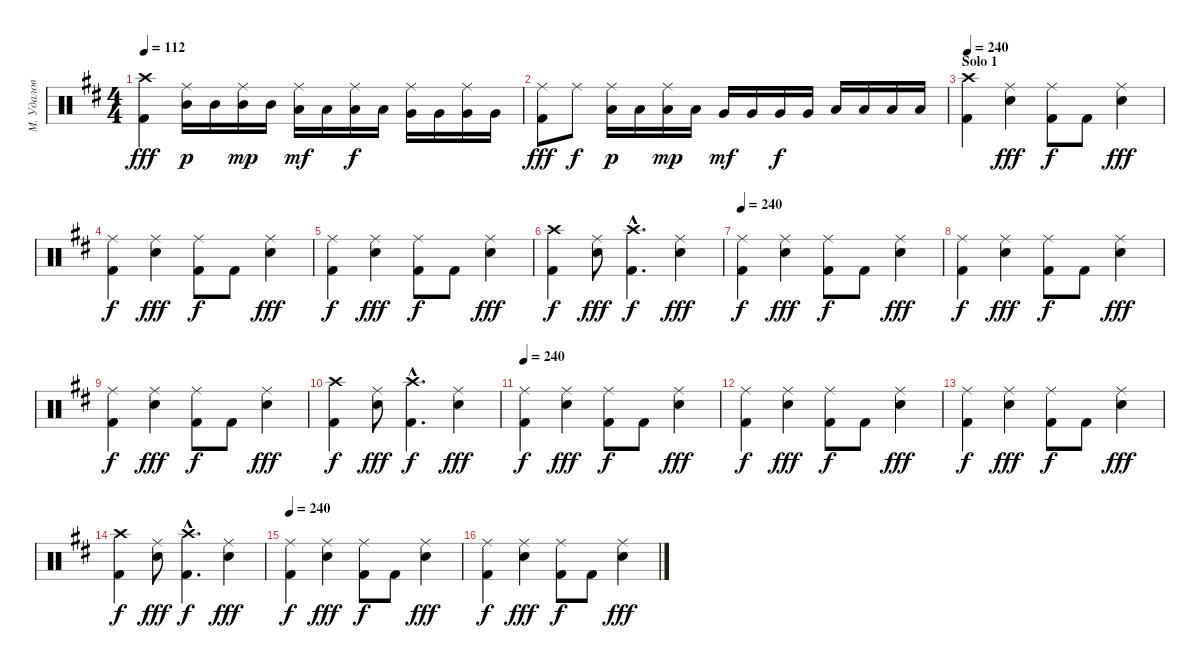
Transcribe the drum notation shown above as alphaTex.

\track ("М. Удалов" "М. Удалов") {instrument percussion}
\staff {score}
\articulation defaults
\ts (4 4)
\tempo 112
\clef neutral
\ks d
("Crash high (hit)" "Kick (hit) 2").4{dy fff} ("Ride (middle)" "Mid Tom (hit)").16{dy p} "Mid Tom (hit)".16 ("Ride (middle)" "Mid Tom (hit)").16{dy mp} "Mid Tom (hit)".16 ("Ride (middle)" "Low Tom (hit)").16{dy mf} "Low Tom (hit)".16 ("Ride (middle)" "Low Tom (hit)").16{dy f} "Low Tom (hit)".16 ("Ride (middle)" "Very Low Tom (hit)").16 "Very Low Tom (hit)".16 ("Ride (middle)" "Very Low Tom (hit)").16 "Very Low Tom (hit)".16 |
("Ride (middle)" "Kick (hit) 2").8{dy fff} "Ride (middle)".8{dy f} ("Ride (middle)" "Low Tom (hit)").16{dy p} "Low Tom (hit)".16 ("Ride (middle)" "Low Tom (hit)").16{dy mp} "Low Tom (hit)".16 "Very Low Tom (hit)".16{dy mf} "Very Low Tom (hit)".16 "Very Low Tom (hit)".16{dy f} "Very Low Tom (hit)".16 "Low Floor Tom (hit)".16 "Low Floor Tom (hit)".16 "Low Floor Tom (hit)".16 "Low Floor Tom (hit)".16 |
\section ("" "Solo 1")
\tempo 240
("Crash high (hit)" "Kick (hit) 2").4 ("Ride (middle)" "Electric Snare (hit)").4{dy fff} ("Ride (middle)" "Kick (hit) 2").8{dy f} "Kick (hit) 2".8 ("Ride (middle)" "Electric Snare (hit)").4{dy fff} |
("Ride (middle)" "Kick (hit) 2").4{dy f} ("Ride (middle)" "Electric Snare (hit)").4{dy fff} ("Ride (middle)" "Kick (hit) 2").8{dy f} "Kick (hit) 2".8 ("Ride (middle)" "Electric Snare (hit)").4{dy fff} |
("Ride (middle)" "Kick (hit) 2").4{dy f} ("Ride (middle)" "Electric Snare (hit)").4{dy fff} ("Ride (middle)" "Kick (hit) 2").8{dy f} "Kick (hit) 2".8 ("Ride (middle)" "Electric Snare (hit)").4{dy fff} |
("Crash high (hit)" "Kick (hit) 2").4{dy f} ("Ride (middle)" "Electric Snare (hit)").8{dy fff} ("Crash high (hit)"{hac} "Kick (hit) 2"{hac}).4{d dy f} ("Ride (middle)" "Electric Snare (hit)").4{dy fff} |
\tempo 240
("Ride (middle)" "Kick (hit) 2").4{dy f} ("Ride (middle)" "Electric Snare (hit)").4{dy fff} ("Ride (middle)" "Kick (hit) 2").8{dy f} "Kick (hit) 2".8 ("Ride (middle)" "Electric Snare (hit)").4{dy fff} |
("Ride (middle)" "Kick (hit) 2").4{dy f} ("Ride (middle)" "Electric Snare (hit)").4{dy fff} ("Ride (middle)" "Kick (hit) 2").8{dy f} "Kick (hit) 2".8 ("Ride (middle)" "Electric Snare (hit)").4{dy fff} |
("Ride (middle)" "Kick (hit) 2").4{dy f} ("Ride (middle)" "Electric Snare (hit)").4{dy fff} ("Ride (middle)" "Kick (hit) 2").8{dy f} "Kick (hit) 2".8 ("Ride (middle)" "Electric Snare (hit)").4{dy fff} |
("Crash high (hit)" "Kick (hit) 2").4{dy f} ("Ride (middle)" "Electric Snare (hit)").8{dy fff} ("Crash high (hit)"{hac} "Kick (hit) 2"{hac}).4{d dy f} ("Ride (middle)" "Electric Snare (hit)").4{dy fff} |
\tempo 240
("Ride (middle)" "Kick (hit) 2").4{dy f} ("Ride (middle)" "Electric Snare (hit)").4{dy fff} ("Ride (middle)" "Kick (hit) 2").8{dy f} "Kick (hit) 2".8 ("Ride (middle)" "Electric Snare (hit)").4{dy fff} |
("Ride (middle)" "Kick (hit) 2").4{dy f} ("Ride (middle)" "Electric Snare (hit)").4{dy fff} ("Ride (middle)" "Kick (hit) 2").8{dy f} "Kick (hit) 2".8 ("Ride (middle)" "Electric Snare (hit)").4{dy fff} |
("Ride (middle)" "Kick (hit) 2").4{dy f} ("Ride (middle)" "Electric Snare (hit)").4{dy fff} ("Ride (middle)" "Kick (hit) 2").8{dy f} "Kick (hit) 2".8 ("Ride (middle)" "Electric Snare (hit)").4{dy fff} |
("Crash high (hit)" "Kick (hit) 2").4{dy f} ("Ride (middle)" "Electric Snare (hit)").8{dy fff} ("Crash high (hit)"{hac} "Kick (hit) 2"{hac}).4{d dy f} ("Ride (middle)" "Electric Snare (hit)").4{dy fff} |
\tempo 240
("Ride (middle)" "Kick (hit) 2").4{dy f} ("Ride (middle)" "Electric Snare (hit)").4{dy fff} ("Ride (middle)" "Kick (hit) 2").8{dy f} "Kick (hit) 2".8 ("Ride (middle)" "Electric Snare (hit)").4{dy fff} |
("Ride (middle)" "Kick (hit) 2").4{dy f} ("Ride (middle)" "Electric Snare (hit)").4{dy fff} ("Ride (middle)" "Kick (hit) 2").8{dy f} "Kick (hit) 2".8 ("Ride (middle)" "Electric Snare (hit)").4{dy fff}
